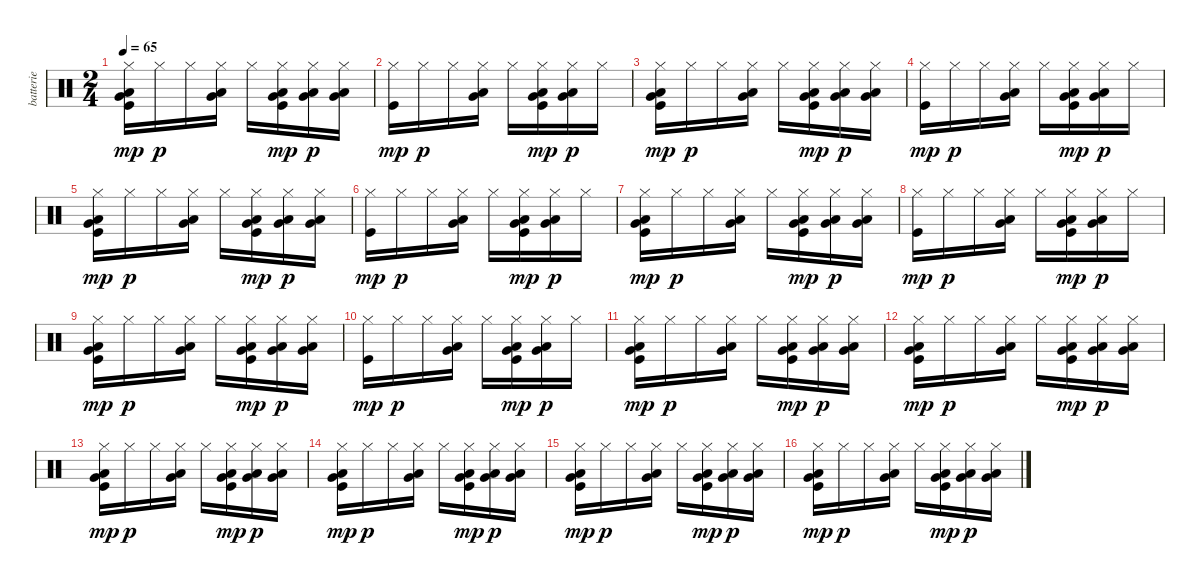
\track ("batterie" "batterie") {instrument percussion}
\staff {score}
\articulation defaults
\ts (2 4)
\tempo 65
\clef neutral
\ks c
("Hi-Hat (closed)" "Low Tom (hit)" "Very Low Tom (hit)" "Kick (hit)").16{dy mp} "Hi-Hat (closed)".16{dy p} "Hi-Hat (closed)".16 ("Hi-Hat (closed)" "Low Tom (hit)" "Very Low Tom (hit)").16 "Hi-Hat (closed)".16 ("Hi-Hat (closed)" "Low Tom (hit)" "Very Low Tom (hit)" "Kick (hit)").16{dy mp} ("Hi-Hat (closed)" "Low Tom (hit)" "Very Low Tom (hit)").16{dy p} ("Hi-Hat (closed)" "Low Tom (hit)" "Very Low Tom (hit)").16 |
("Hi-Hat (closed)" "Kick (hit)").16{dy mp} "Hi-Hat (closed)".16{dy p} "Hi-Hat (closed)".16 ("Hi-Hat (closed)" "Low Tom (hit)" "Very Low Tom (hit)").16 "Hi-Hat (closed)".16 ("Hi-Hat (closed)" "Low Tom (hit)" "Very Low Tom (hit)" "Kick (hit)").16{dy mp} ("Hi-Hat (closed)" "Low Tom (hit)" "Very Low Tom (hit)").16{dy p} "Hi-Hat (closed)".16 |
("Hi-Hat (closed)" "Low Tom (hit)" "Very Low Tom (hit)" "Kick (hit)").16{dy mp} "Hi-Hat (closed)".16{dy p} "Hi-Hat (closed)".16 ("Hi-Hat (closed)" "Low Tom (hit)" "Very Low Tom (hit)").16 "Hi-Hat (closed)".16 ("Hi-Hat (closed)" "Low Tom (hit)" "Very Low Tom (hit)" "Kick (hit)").16{dy mp} ("Hi-Hat (closed)" "Low Tom (hit)" "Very Low Tom (hit)").16{dy p} ("Hi-Hat (closed)" "Low Tom (hit)" "Very Low Tom (hit)").16 |
("Hi-Hat (closed)" "Kick (hit)").16{dy mp} "Hi-Hat (closed)".16{dy p} "Hi-Hat (closed)".16 ("Hi-Hat (closed)" "Low Tom (hit)" "Very Low Tom (hit)").16 "Hi-Hat (closed)".16 ("Hi-Hat (closed)" "Low Tom (hit)" "Very Low Tom (hit)" "Kick (hit)").16{dy mp} ("Hi-Hat (closed)" "Low Tom (hit)" "Very Low Tom (hit)").16{dy p} "Hi-Hat (closed)".16 |
("Hi-Hat (closed)" "Low Tom (hit)" "Very Low Tom (hit)" "Kick (hit)").16{dy mp} "Hi-Hat (closed)".16{dy p} "Hi-Hat (closed)".16 ("Hi-Hat (closed)" "Low Tom (hit)" "Very Low Tom (hit)").16 "Hi-Hat (closed)".16 ("Hi-Hat (closed)" "Low Tom (hit)" "Very Low Tom (hit)" "Kick (hit)").16{dy mp} ("Hi-Hat (closed)" "Low Tom (hit)" "Very Low Tom (hit)").16{dy p} ("Hi-Hat (closed)" "Low Tom (hit)" "Very Low Tom (hit)").16 |
("Hi-Hat (closed)" "Kick (hit)").16{dy mp} "Hi-Hat (closed)".16{dy p} "Hi-Hat (closed)".16 ("Hi-Hat (closed)" "Low Tom (hit)" "Very Low Tom (hit)").16 "Hi-Hat (closed)".16 ("Hi-Hat (closed)" "Low Tom (hit)" "Very Low Tom (hit)" "Kick (hit)").16{dy mp} ("Hi-Hat (closed)" "Low Tom (hit)" "Very Low Tom (hit)").16{dy p} "Hi-Hat (closed)".16 |
("Hi-Hat (closed)" "Low Tom (hit)" "Very Low Tom (hit)" "Kick (hit)").16{dy mp} "Hi-Hat (closed)".16{dy p} "Hi-Hat (closed)".16 ("Hi-Hat (closed)" "Low Tom (hit)" "Very Low Tom (hit)").16 "Hi-Hat (closed)".16 ("Hi-Hat (closed)" "Low Tom (hit)" "Very Low Tom (hit)" "Kick (hit)").16{dy mp} ("Hi-Hat (closed)" "Low Tom (hit)" "Very Low Tom (hit)").16{dy p} ("Hi-Hat (closed)" "Low Tom (hit)" "Very Low Tom (hit)").16 |
("Hi-Hat (closed)" "Kick (hit)").16{dy mp} "Hi-Hat (closed)".16{dy p} "Hi-Hat (closed)".16 ("Hi-Hat (closed)" "Low Tom (hit)" "Very Low Tom (hit)").16 "Hi-Hat (closed)".16 ("Hi-Hat (closed)" "Low Tom (hit)" "Very Low Tom (hit)" "Kick (hit)").16{dy mp} ("Hi-Hat (closed)" "Low Tom (hit)" "Very Low Tom (hit)").16{dy p} "Hi-Hat (closed)".16 |
("Hi-Hat (closed)" "Low Tom (hit)" "Very Low Tom (hit)" "Kick (hit)").16{dy mp} "Hi-Hat (closed)".16{dy p} "Hi-Hat (closed)".16 ("Hi-Hat (closed)" "Low Tom (hit)" "Very Low Tom (hit)").16 "Hi-Hat (closed)".16 ("Hi-Hat (closed)" "Low Tom (hit)" "Very Low Tom (hit)" "Kick (hit)").16{dy mp} ("Hi-Hat (closed)" "Low Tom (hit)" "Very Low Tom (hit)").16{dy p} ("Hi-Hat (closed)" "Low Tom (hit)" "Very Low Tom (hit)").16 |
("Hi-Hat (closed)" "Kick (hit)").16{dy mp} "Hi-Hat (closed)".16{dy p} "Hi-Hat (closed)".16 ("Hi-Hat (closed)" "Low Tom (hit)" "Very Low Tom (hit)").16 "Hi-Hat (closed)".16 ("Hi-Hat (closed)" "Low Tom (hit)" "Very Low Tom (hit)" "Kick (hit)").16{dy mp} ("Hi-Hat (closed)" "Low Tom (hit)" "Very Low Tom (hit)").16{dy p} "Hi-Hat (closed)".16 |
("Hi-Hat (closed)" "Low Tom (hit)" "Very Low Tom (hit)" "Kick (hit)").16{dy mp} "Hi-Hat (closed)".16{dy p} "Hi-Hat (closed)".16 ("Hi-Hat (closed)" "Low Tom (hit)" "Very Low Tom (hit)").16 "Hi-Hat (closed)".16 ("Hi-Hat (closed)" "Low Tom (hit)" "Very Low Tom (hit)" "Kick (hit)").16{dy mp} ("Hi-Hat (closed)" "Low Tom (hit)" "Very Low Tom (hit)").16{dy p} ("Hi-Hat (closed)" "Low Tom (hit)" "Very Low Tom (hit)").16 |
("Hi-Hat (closed)" "Low Tom (hit)" "Very Low Tom (hit)" "Kick (hit)").16{dy mp} "Hi-Hat (closed)".16{dy p} "Hi-Hat (closed)".16 ("Hi-Hat (closed)" "Low Tom (hit)" "Very Low Tom (hit)").16 "Hi-Hat (closed)".16 ("Hi-Hat (closed)" "Low Tom (hit)" "Very Low Tom (hit)" "Kick (hit)").16{dy mp} ("Hi-Hat (closed)" "Low Tom (hit)" "Very Low Tom (hit)").16{dy p} ("Hi-Hat (closed)" "Low Tom (hit)" "Very Low Tom (hit)").16 |
("Hi-Hat (closed)" "Low Tom (hit)" "Very Low Tom (hit)" "Kick (hit)").16{dy mp} "Hi-Hat (closed)".16{dy p} "Hi-Hat (closed)".16 ("Hi-Hat (closed)" "Low Tom (hit)" "Very Low Tom (hit)").16 "Hi-Hat (closed)".16 ("Hi-Hat (closed)" "Low Tom (hit)" "Very Low Tom (hit)" "Kick (hit)").16{dy mp} ("Hi-Hat (closed)" "Low Tom (hit)" "Very Low Tom (hit)").16{dy p} ("Hi-Hat (closed)" "Low Tom (hit)" "Very Low Tom (hit)").16 |
("Hi-Hat (closed)" "Low Tom (hit)" "Very Low Tom (hit)" "Kick (hit)").16{dy mp} "Hi-Hat (closed)".16{dy p} "Hi-Hat (closed)".16 ("Hi-Hat (closed)" "Low Tom (hit)" "Very Low Tom (hit)").16 "Hi-Hat (closed)".16 ("Hi-Hat (closed)" "Low Tom (hit)" "Very Low Tom (hit)" "Kick (hit)").16{dy mp} ("Hi-Hat (closed)" "Low Tom (hit)" "Very Low Tom (hit)").16{dy p} ("Hi-Hat (closed)" "Low Tom (hit)" "Very Low Tom (hit)").16 |
("Hi-Hat (closed)" "Low Tom (hit)" "Very Low Tom (hit)" "Kick (hit)").16{dy mp} "Hi-Hat (closed)".16{dy p} "Hi-Hat (closed)".16 ("Hi-Hat (closed)" "Low Tom (hit)" "Very Low Tom (hit)").16 "Hi-Hat (closed)".16 ("Hi-Hat (closed)" "Low Tom (hit)" "Very Low Tom (hit)" "Kick (hit)").16{dy mp} ("Hi-Hat (closed)" "Low Tom (hit)" "Very Low Tom (hit)").16{dy p} ("Hi-Hat (closed)" "Low Tom (hit)" "Very Low Tom (hit)").16 |
("Hi-Hat (closed)" "Low Tom (hit)" "Very Low Tom (hit)" "Kick (hit)").16{dy mp} "Hi-Hat (closed)".16{dy p} "Hi-Hat (closed)".16 ("Hi-Hat (closed)" "Low Tom (hit)" "Very Low Tom (hit)").16 "Hi-Hat (closed)".16 ("Hi-Hat (closed)" "Low Tom (hit)" "Very Low Tom (hit)" "Kick (hit)").16{dy mp} ("Hi-Hat (closed)" "Low Tom (hit)" "Very Low Tom (hit)").16{dy p} ("Hi-Hat (closed)" "Low Tom (hit)" "Very Low Tom (hit)").16
